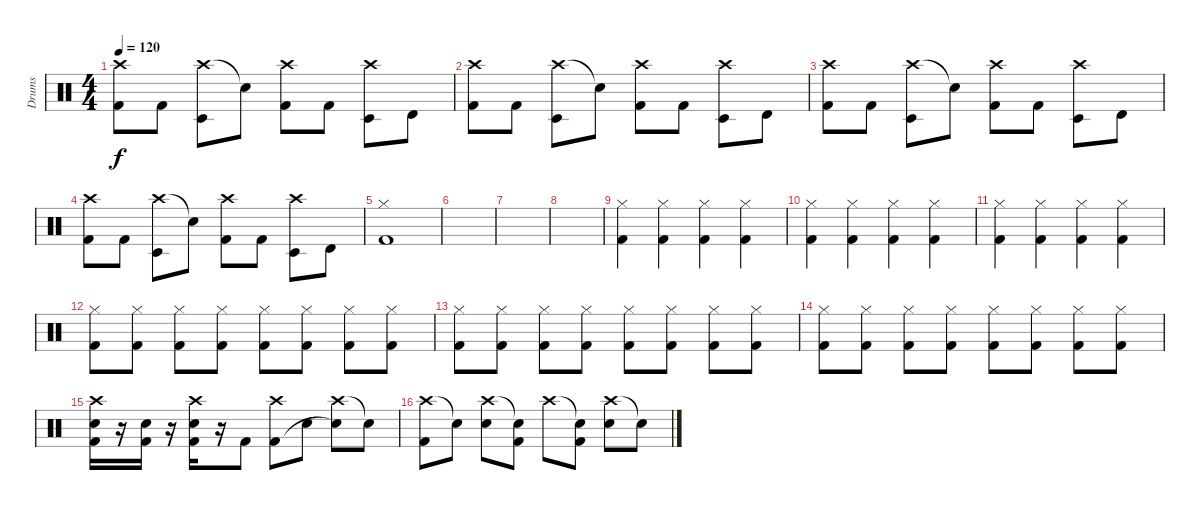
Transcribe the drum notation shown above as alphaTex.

\track ("Drums" "Drums") {instrument percussion}
\staff {score}
\articulation defaults
\ts (4 4)
\tempo 120
\clef neutral
\ks c
("Crash high (hit)" "Kick (hit) 2").8{dy f} "Kick (hit) 2".8 ("Crash high (hit)" "Timbale low (hit)").8 "Snare (hit)"{t}.8 ("Crash high (hit)" "Kick (hit) 2").8 "Kick (hit) 2".8 ("Crash high (hit)" "Timbale low (hit)").8 "Timbale high (hit)".8 |
("Crash high (hit)" "Kick (hit) 2").8 "Kick (hit) 2".8 ("Crash high (hit)" "Timbale low (hit)").8 "Snare (hit)"{t}.8 ("Crash high (hit)" "Kick (hit) 2").8 "Kick (hit) 2".8 ("Crash high (hit)" "Timbale low (hit)").8 "Timbale high (hit)".8 |
("Crash high (hit)" "Kick (hit) 2").8 "Kick (hit) 2".8 ("Crash high (hit)" "Timbale low (hit)").8 "Snare (hit)"{t}.8 ("Crash high (hit)" "Kick (hit) 2").8 "Kick (hit) 2".8 ("Crash high (hit)" "Timbale low (hit)").8 "Timbale high (hit)".8 |
("Crash high (hit)" "Kick (hit) 2").8 "Kick (hit) 2".8 ("Crash high (hit)" "Timbale low (hit)").8 "Snare (hit)"{t}.8 ("Crash high (hit)" "Kick (hit) 2").8 "Kick (hit) 2".8 ("Crash high (hit)" "Timbale low (hit)").8 "Timbale high (hit)".8 |
("Hi-Hat (closed)" "Kick (hit) 2").1 |
|
|
|
("Hi-Hat (closed)" "Kick (hit) 2").4 ("Hi-Hat (closed)" "Kick (hit) 2").4 ("Hi-Hat (closed)" "Kick (hit) 2").4 ("Hi-Hat (closed)" "Kick (hit) 2").4 |
("Hi-Hat (closed)" "Kick (hit) 2").4 ("Hi-Hat (closed)" "Kick (hit) 2").4 ("Hi-Hat (closed)" "Kick (hit) 2").4 ("Hi-Hat (closed)" "Kick (hit) 2").4 |
("Hi-Hat (closed)" "Kick (hit) 2").4 ("Hi-Hat (closed)" "Kick (hit) 2").4 ("Hi-Hat (closed)" "Kick (hit) 2").4 ("Hi-Hat (closed)" "Kick (hit) 2").4 |
("Hi-Hat (closed)" "Kick (hit) 2").8 ("Hi-Hat (closed)" "Kick (hit) 2").8 ("Hi-Hat (closed)" "Kick (hit) 2").8 ("Hi-Hat (closed)" "Kick (hit) 2").8 ("Hi-Hat (closed)" "Kick (hit) 2").8 ("Hi-Hat (closed)" "Kick (hit) 2").8 ("Hi-Hat (closed)" "Kick (hit) 2").8 ("Hi-Hat (closed)" "Kick (hit) 2").8 |
("Hi-Hat (closed)" "Kick (hit) 2").8 ("Hi-Hat (closed)" "Kick (hit) 2").8 ("Hi-Hat (closed)" "Kick (hit) 2").8 ("Hi-Hat (closed)" "Kick (hit) 2").8 ("Hi-Hat (closed)" "Kick (hit) 2").8 ("Hi-Hat (closed)" "Kick (hit) 2").8 ("Hi-Hat (closed)" "Kick (hit) 2").8 ("Hi-Hat (closed)" "Kick (hit) 2").8 |
("Hi-Hat (closed)" "Kick (hit) 2").8 ("Hi-Hat (closed)" "Kick (hit) 2").8 ("Hi-Hat (closed)" "Kick (hit) 2").8 ("Hi-Hat (closed)" "Kick (hit) 2").8 ("Hi-Hat (closed)" "Kick (hit) 2").8 ("Hi-Hat (closed)" "Kick (hit) 2").8 ("Hi-Hat (closed)" "Kick (hit) 2").8 ("Hi-Hat (closed)" "Kick (hit) 2").8 |
("Crash high (hit)" "Electric Snare (hit)" "Kick (hit) 2").16 r.16 ("Electric Snare (hit)" "Kick (hit) 2").16 r.16 ("Crash high (hit)" "Electric Snare (hit)" "Kick (hit) 2").16 r.16 "Kick (hit) 2".8 ("Crash high (hit)" "Kick (hit) 2").8 "Electric Snare (hit)".8 ("Crash high (hit)" "Snare (hit)"{t}).8 "Snare (hit)"{t}.8 |
("Crash high (hit)" "Kick (hit) 2").8 "Snare (hit)"{t}.8 ("Crash high (hit)" "Electric Snare (hit)").8 ("Snare (hit)"{t} "Kick (hit) 2").8 "Crash high (hit)".8 ("Snare (hit)"{t} "Kick (hit) 2").8 ("Crash high (hit)" "Electric Snare (hit)").8 "Snare (hit)"{t}.8
